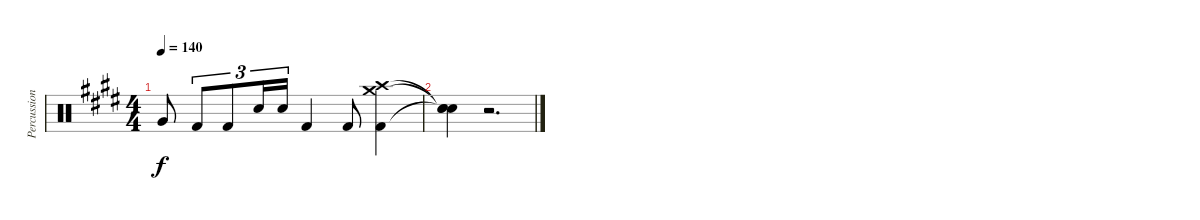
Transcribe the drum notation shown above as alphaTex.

\track ("Percussion" "Percussion") {instrument percussion}
\staff {score}
\articulation defaults
\ts (4 4)
\tempo 140
\clef neutral
\ks e "Very Low Tom (hit)".8{dy f} "Kick (hit) 2".8{tu (3 2)} "Kick (hit) 2".8{tu (3 2)} "Snare (hit) 2".16{tu (3 2)} "Snare (hit) 2".16{tu (3 2)} "Kick (hit) 2".4 "Kick (hit) 2".8
("Crash high (hit)" "Crash medium (hit)" "Kick (hit) 2").4 |
("Snare (hit)"{t} "Snare (hit)"{t} "Snare (hit)"{t}).4 r.2{d}
